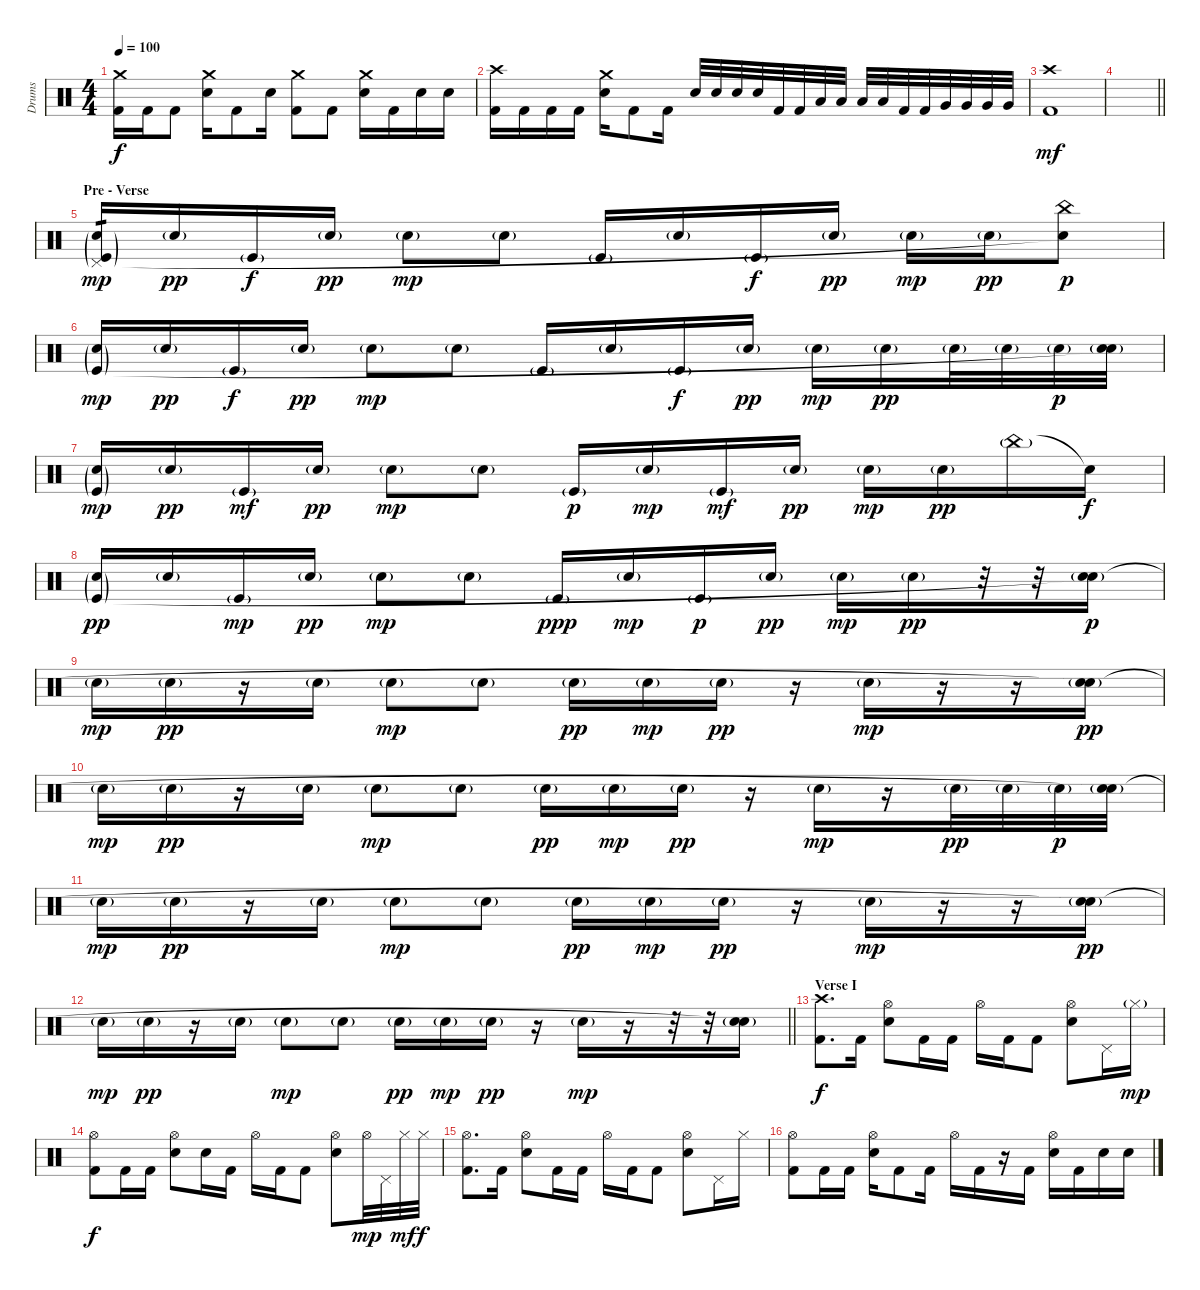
\track ("Drums" "Drums") {instrument percussion}
\staff {score}
\articulation defaults
\ts (4 4)
\tempo 100
\clef neutral
\ks c
("Crash medium (hit)" "Kick (hit) 2").16{dy f} "Kick (hit) 2".16 "Kick (hit) 2".8 ("Crash medium (hit)" "Electric Snare (hit)").16 "Kick (hit) 2".8 "Electric Snare (hit)".16 ("Crash medium (hit)" "Kick (hit) 2").8 "Kick (hit) 2".8 ("Crash medium (hit)" "Electric Snare (hit)").16 "Kick (hit) 2".16 "Electric Snare (hit)".16 "Electric Snare (hit)".16 |
("Crash high (hit)" "Kick (hit) 2").16 "Kick (hit) 2".16 "Kick (hit) 2".16 "Kick (hit) 2".16 ("Crash medium (hit)" "Electric Snare (hit)").16 "Kick (hit) 2".8 "Kick (hit) 2".16 "Electric Snare (hit)".32 "Electric Snare (hit)".32 "Electric Snare (hit)".32 "Electric Snare (hit)".32 "Kick (hit) 2".32 "Kick (hit) 2".32 "Low Tom (hit)".32 "Low Tom (hit)".32 "Low Tom (hit)".32 "Low Tom (hit)".32 "Kick (hit) 2".32 "Kick (hit) 2".32 "Very Low Tom (hit)".32 "Very Low Tom (hit)".32 "Very Low Tom (hit)".32 "Very Low Tom (hit)".32 |
("Crash high (hit)" "Kick (hit) 2").1{dy mf} |
\barLineRight lightlight
|
\section ("" "Pre - Verse")
("Electric Snare (hit)"{g} "Pedal Hi-Hat (hit)"{g} "Kick (hit)"{g}).16{tp 1 dy mp} "Snare (hit) 2"{g}.16{dy pp} "Kick (hit)"{g}.16{dy f} "Snare (hit) 2"{g}.16{dy pp} "Electric Snare (hit)"{g}.8{dy mp} "Electric Snare (hit)"{g}.8 "Kick (hit)"{g}.16 "Electric Snare (hit)"{g}.16 "Kick (hit)"{g}.16{dy f} "Snare (hit) 2"{g}.16{dy pp} "Electric Snare (hit)"{g}.16{dy mp} "Snare (hit) 2"{g}.16{dy pp} ("China (hit)" "Snare (hit)"{t}).8{dy p} |
("Electric Snare (hit)"{g} "Kick (hit)"{g}).16{dy mp} "Snare (hit) 2"{g}.16{dy pp} "Kick (hit)"{g}.16{dy f} "Snare (hit) 2"{g}.16{dy pp} "Electric Snare (hit)"{g}.8{dy mp} "Electric Snare (hit)"{g}.8 "Kick (hit)"{g}.16 "Electric Snare (hit)"{g}.16 "Kick (hit)"{g}.16{dy f} "Snare (hit) 2"{g}.16{dy pp} "Electric Snare (hit)"{g}.16{dy mp} "Snare (hit) 2"{g}.16{dy pp} "Electric Snare (hit)"{g}.32 "Electric Snare (hit)"{g}.32 "Electric Snare (hit)"{g}.32{dy p} ("Electric Snare (hit)"{g} "Snare (hit)"{t}).32 |
("Electric Snare (hit)"{g} "Kick (hit)"{g}).16{dy mp} "Snare (hit) 2"{g}.16{dy pp} "Kick (hit)"{g}.16{dy mf} "Snare (hit) 2"{g}.16{dy pp} "Electric Snare (hit)"{g}.8{dy mp} "Electric Snare (hit)"{g}.8 "Kick (hit)"{g}.16{dy p} "Electric Snare (hit)"{g}.16{dy mp} "Kick (hit)"{g}.16{dy mf} "Snare (hit) 2"{g}.16{dy pp} "Electric Snare (hit)"{g}.16{dy mp} "Snare (hit) 2"{g}.16{dy pp} "China (hit)"{g}.16 "Snare (hit)"{t}.16{dy f} |
("Electric Snare (hit)"{g} "Kick (hit)"{g}).16{dy pp} "Snare (hit) 2"{g}.16 "Kick (hit)"{g}.16{dy mp} "Snare (hit) 2"{g}.16{dy pp} "Electric Snare (hit)"{g}.8{dy mp} "Electric Snare (hit)"{g}.8 "Kick (hit)"{g}.16{dy ppp} "Electric Snare (hit)"{g}.16{dy mp} "Kick (hit)"{g}.16{dy p} "Snare (hit) 2"{g}.16{dy pp} "Electric Snare (hit)"{g}.16{dy mp} "Snare (hit) 2"{g}.16{dy pp} r.32 r.32 ("Snare (hit) 2"{g} "Snare (hit)"{t}).16{dy p} |
"Electric Snare (hit)"{g}.16{dy mp} "Snare (hit) 2"{g}.16{dy pp} r.16 "Snare (hit) 2"{g}.16 "Electric Snare (hit)"{g}.8{dy mp} "Electric Snare (hit)"{g}.8 "Snare (hit) 2"{g}.16{dy pp} "Electric Snare (hit)"{g}.16{dy mp} "Snare (hit) 2"{g}.16{dy pp} r.16 "Electric Snare (hit)"{g}.16{dy mp} r.16 r.16 ("Snare (hit) 2"{g} "Snare (hit)"{t}).16{dy pp} |
"Electric Snare (hit)"{g}.16{dy mp} "Snare (hit) 2"{g}.16{dy pp} r.16 "Snare (hit) 2"{g}.16 "Electric Snare (hit)"{g}.8{dy mp} "Electric Snare (hit)"{g}.8 "Snare (hit) 2"{g}.16{dy pp} "Electric Snare (hit)"{g}.16{dy mp} "Snare (hit) 2"{g}.16{dy pp} r.16 "Electric Snare (hit)"{g}.16{dy mp} r.16 "Electric Snare (hit)"{g}.32{dy pp} "Electric Snare (hit)"{g}.32 "Electric Snare (hit)"{g}.32{dy p} ("Electric Snare (hit)"{g} "Snare (hit)"{t}).32 |
"Electric Snare (hit)"{g}.16{dy mp} "Snare (hit) 2"{g}.16{dy pp} r.16 "Snare (hit) 2"{g}.16 "Electric Snare (hit)"{g}.8{dy mp} "Electric Snare (hit)"{g}.8 "Snare (hit) 2"{g}.16{dy pp} "Electric Snare (hit)"{g}.16{dy mp} "Snare (hit) 2"{g}.16{dy pp} r.16 "Electric Snare (hit)"{g}.16{dy mp} r.16 r.16 ("Snare (hit) 2"{g} "Snare (hit)"{t}).16{dy pp} |
\barLineRight lightlight "Electric Snare (hit)"{g}.16{dy mp} "Snare (hit) 2"{g}.16{dy pp}
r.16 "Snare (hit) 2"{g}.16 "Electric Snare (hit)"{g}.8{dy mp} "Electric Snare (hit)"{g}.8 "Snare (hit) 2"{g}.16{dy pp} "Electric Snare (hit)"{g}.16{dy mp} "Snare (hit) 2"{g}.16{dy pp} r.16 "Electric Snare (hit)"{g}.16{dy mp} r.16 r.32 r.32 ("Electric Snare (hit)"{g} "Snare (hit)"{t}).16 |
\section ("" "Verse I")
("Crash high (hit)" "Kick (hit) 2").8{d dy f} "Kick (hit) 2".16 ("Hi-Hat (open)" "Electric Snare (hit)").8 "Kick (hit) 2".16 "Kick (hit) 2".16 "Hi-Hat (open)".16 "Kick (hit) 2".16 "Kick (hit) 2".8 ("Hi-Hat (open)" "Electric Snare (hit)").8 "Pedal Hi-Hat (hit)".16 "Hi-Hat (closed)"{g}.16{dy mp} |
("Hi-Hat (open)" "Kick (hit) 2").8{dy f} "Kick (hit) 2".16 "Kick (hit) 2".16 ("Hi-Hat (open)" "Electric Snare (hit)").8 "Electric Snare (hit)".16 "Kick (hit) 2".16 "Hi-Hat (open)".16 "Kick (hit) 2".16 "Kick (hit) 2".8 ("Hi-Hat (open)" "Electric Snare (hit)").8 "Hi-Hat (open)".32{dy mp} "Pedal Hi-Hat (hit)".32 "Hi-Hat (closed)".32{dy mf} "Hi-Hat (closed)".32{dy f} |
("Hi-Hat (open)" "Kick (hit) 2").8{d} "Kick (hit) 2".16 ("Hi-Hat (open)" "Electric Snare (hit)").8 "Kick (hit) 2".16 "Kick (hit) 2".16 "Hi-Hat (open)".16 "Kick (hit) 2".16 "Kick (hit) 2".8 ("Hi-Hat (open)" "Electric Snare (hit)").8 "Pedal Hi-Hat (hit)".16 "Hi-Hat (closed)".16 |
("Hi-Hat (open)" "Kick (hit) 2").8 "Kick (hit) 2".16 "Kick (hit) 2".16 ("Hi-Hat (open)" "Electric Snare (hit)").16 "Kick (hit) 2".8 "Kick (hit) 2".16 "Hi-Hat (open)".16 "Kick (hit) 2".16 r.16 "Kick (hit) 2".16 ("Hi-Hat (open)" "Electric Snare (hit)").16 "Kick (hit) 2".16 "Electric Snare (hit)".16 "Electric Snare (hit)".16
